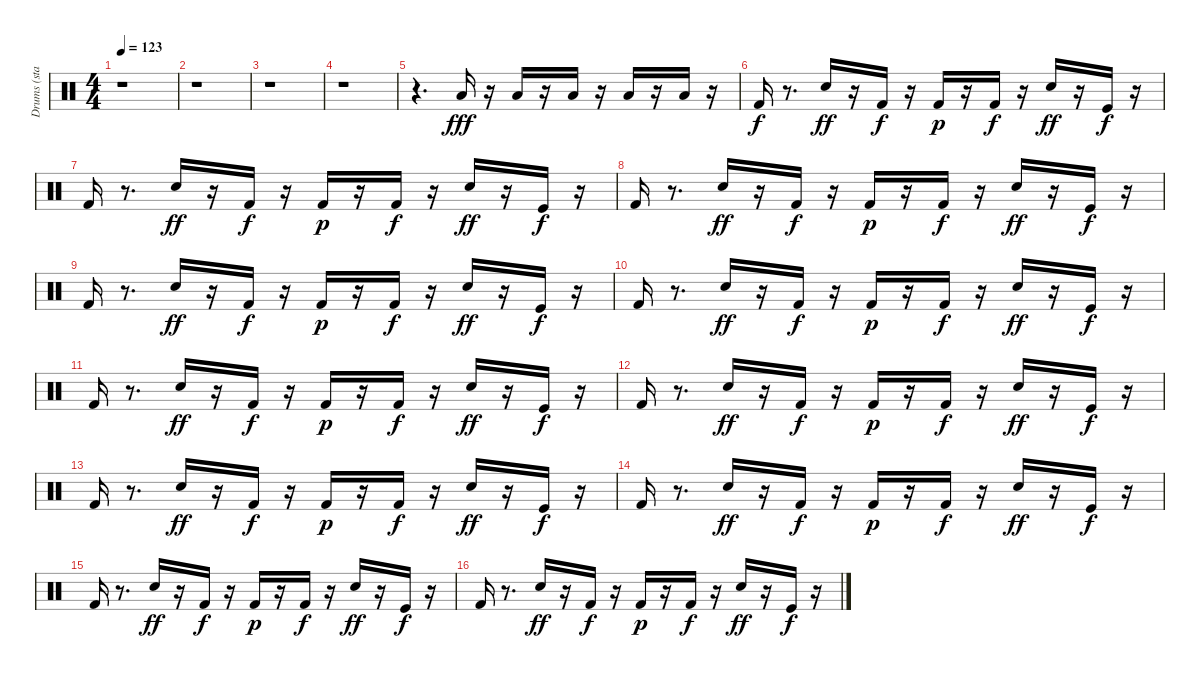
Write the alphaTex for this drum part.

\track ("Drums (standard set)" "Drums (sta") {instrument percussion}
\staff {score}
\articulation defaults
\ts (4 4)
\tempo 123
\clef neutral
\ks c
r.1{dy fff} |
r.1 |
r.1 |
r.1 |
r.4{d} "Low Tom (hit)".16 r.16 "Low Tom (hit)".16 r.16 "Low Tom (hit)".16 r.16 "Low Tom (hit)".16 r.16 "Low Tom (hit)".16 r.16 |
"Kick (hit) 2".16{dy f} r.8{d} "Snare (hit) 2".16{dy ff} r.16 "Kick (hit) 2".16{dy f} r.16 "Kick (hit) 2".16{dy p} r.16 "Kick (hit) 2".16{dy f} r.16 "Snare (hit) 2".16{dy ff} r.16 "Kick (hit)".16{dy f} r.16 |
"Kick (hit) 2".16 r.8{d} "Snare (hit) 2".16{dy ff} r.16 "Kick (hit) 2".16{dy f} r.16 "Kick (hit) 2".16{dy p} r.16 "Kick (hit) 2".16{dy f} r.16 "Snare (hit) 2".16{dy ff} r.16 "Kick (hit)".16{dy f} r.16 |
"Kick (hit) 2".16 r.8{d} "Snare (hit) 2".16{dy ff} r.16 "Kick (hit) 2".16{dy f} r.16 "Kick (hit) 2".16{dy p} r.16 "Kick (hit) 2".16{dy f} r.16 "Snare (hit) 2".16{dy ff} r.16 "Kick (hit)".16{dy f} r.16 |
"Kick (hit) 2".16 r.8{d} "Snare (hit) 2".16{dy ff} r.16 "Kick (hit) 2".16{dy f} r.16 "Kick (hit) 2".16{dy p} r.16 "Kick (hit) 2".16{dy f} r.16 "Snare (hit) 2".16{dy ff} r.16 "Kick (hit)".16{dy f} r.16 |
"Kick (hit) 2".16 r.8{d} "Snare (hit) 2".16{dy ff} r.16 "Kick (hit) 2".16{dy f} r.16 "Kick (hit) 2".16{dy p} r.16 "Kick (hit) 2".16{dy f} r.16 "Snare (hit) 2".16{dy ff} r.16 "Kick (hit)".16{dy f} r.16 |
"Kick (hit) 2".16 r.8{d} "Snare (hit) 2".16{dy ff} r.16 "Kick (hit) 2".16{dy f} r.16 "Kick (hit) 2".16{dy p} r.16 "Kick (hit) 2".16{dy f} r.16 "Snare (hit) 2".16{dy ff} r.16 "Kick (hit)".16{dy f} r.16 |
"Kick (hit) 2".16 r.8{d} "Snare (hit) 2".16{dy ff} r.16 "Kick (hit) 2".16{dy f} r.16 "Kick (hit) 2".16{dy p} r.16 "Kick (hit) 2".16{dy f} r.16 "Snare (hit) 2".16{dy ff} r.16 "Kick (hit)".16{dy f} r.16 |
"Kick (hit) 2".16 r.8{d} "Snare (hit) 2".16{dy ff} r.16 "Kick (hit) 2".16{dy f} r.16 "Kick (hit) 2".16{dy p} r.16 "Kick (hit) 2".16{dy f} r.16 "Snare (hit) 2".16{dy ff} r.16 "Kick (hit)".16{dy f} r.16 |
"Kick (hit) 2".16 r.8{d} "Snare (hit) 2".16{dy ff} r.16 "Kick (hit) 2".16{dy f} r.16 "Kick (hit) 2".16{dy p} r.16 "Kick (hit) 2".16{dy f} r.16 "Snare (hit) 2".16{dy ff} r.16 "Kick (hit)".16{dy f} r.16 |
"Kick (hit) 2".16 r.8{d} "Snare (hit) 2".16{dy ff} r.16 "Kick (hit) 2".16{dy f} r.16 "Kick (hit) 2".16{dy p} r.16 "Kick (hit) 2".16{dy f} r.16 "Snare (hit) 2".16{dy ff} r.16 "Kick (hit)".16{dy f} r.16 |
"Kick (hit) 2".16 r.8{d} "Snare (hit) 2".16{dy ff} r.16 "Kick (hit) 2".16{dy f} r.16 "Kick (hit) 2".16{dy p} r.16 "Kick (hit) 2".16{dy f} r.16 "Snare (hit) 2".16{dy ff} r.16 "Kick (hit)".16{dy f} r.16
